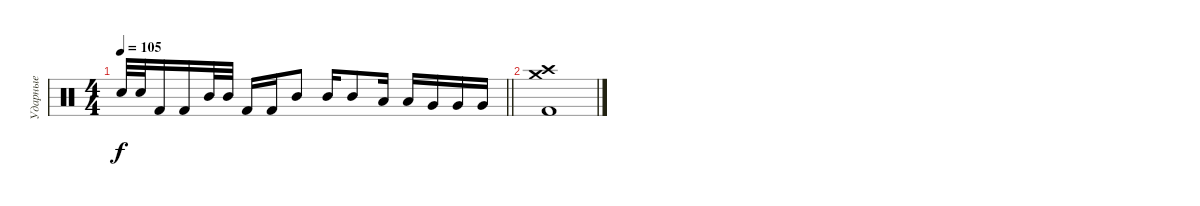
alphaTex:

\track ("Ударные" "Ударные") {instrument percussion}
\staff
\articulation defaults
\ts (4 4)
\tempo 105
\clef neutral
\barLineRight lightlight
\ks c "Electric Snare (hit)".32{dy f} "Electric Snare (hit)".32 "Kick (hit) 2".16 "Kick (hit) 2".16 "Mid Tom (hit)".32 "Mid Tom (hit)".32 "Kick (hit) 2".16 "Kick (hit) 2".16 "Mid Tom (hit)".8 "Mid Tom (hit)".16 "Mid Tom (hit)".8 "Low Tom (hit)".16 "Low Tom (hit)".16 "Very Low Tom (hit)".16 "Very Low Tom (hit)".16 "Very Low Tom (hit)".16
|
("Crash medium (hit)" "Crash high (hit)" "Kick (hit) 2").1
